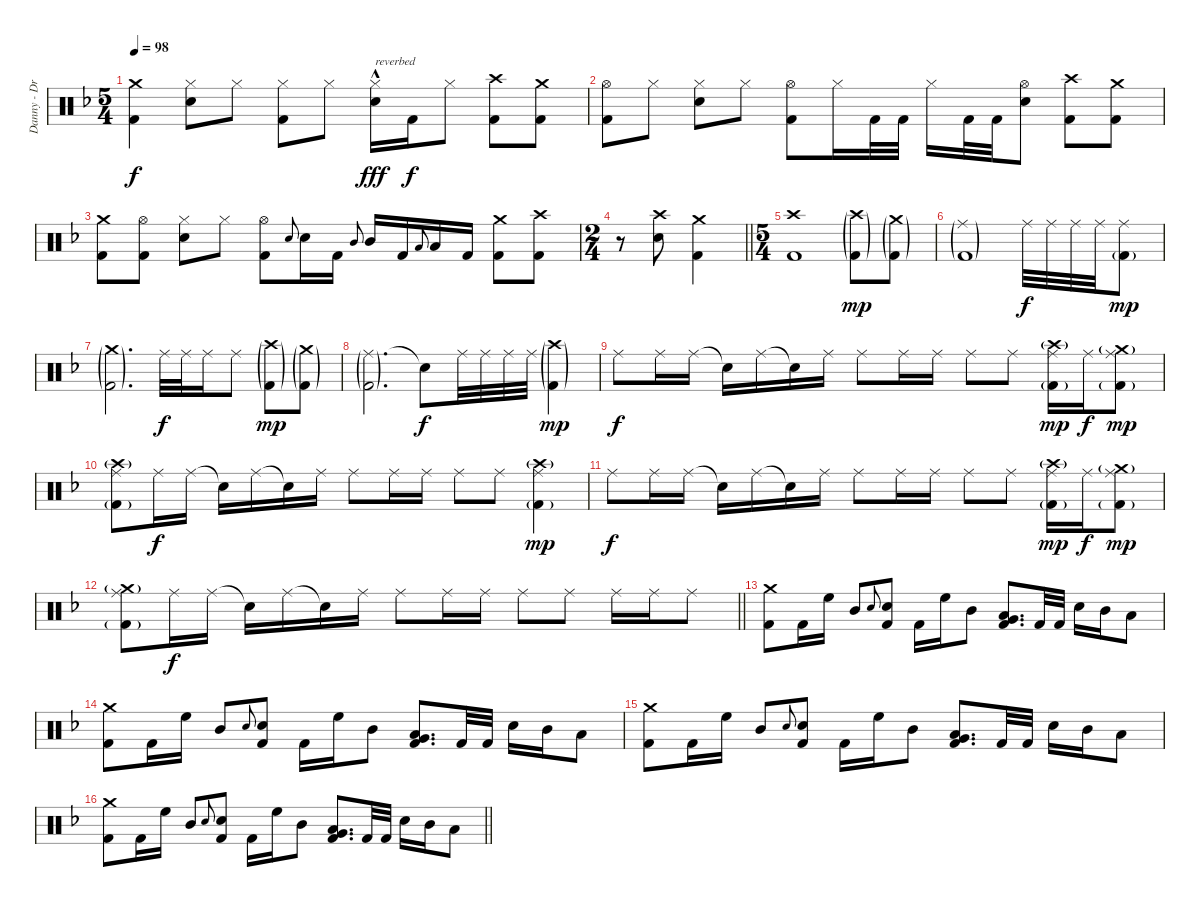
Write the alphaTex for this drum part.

\track ("Danny - Drums" "Danny - Dr") {instrument percussion}
\staff {score}
\articulation defaults
\ts (5 4)
\tempo 98
\clef neutral
\ks dminor
("Crash medium (hit)" "Kick (hit) 2").4{dy f} ("Hi-Hat (closed)" "Electric Snare (hit)").8 "Hi-Hat (closed)".8 ("Hi-Hat (closed)" "Kick (hit) 2").8 "Hi-Hat (closed)".8 ("Hi-Hat (closed)" "Snare (hit) 2"{hac}).16{txt "reverbed" dy fff} "Kick (hit) 2".16{dy f} "Hi-Hat (closed)".8 ("Crash high (hit)" "Kick (hit) 2").8 ("Crash medium (hit)" "Kick (hit) 2").8 |
("Hi-Hat (open)" "Kick (hit) 2").8 "Hi-Hat (closed)".8 ("Hi-Hat (closed)" "Electric Snare (hit)").8 "Hi-Hat (closed)".8 ("Hi-Hat (open)" "Kick (hit) 2").8 "Hi-Hat (closed)".16 "Kick (hit) 2".32 "Kick (hit) 2".32 "Hi-Hat (closed)".16 "Kick (hit) 2".32 "Kick (hit) 2".32 ("Hi-Hat (open)" "Electric Snare (hit)").8 ("Crash high (hit)" "Kick (hit) 2").8 ("Crash medium (hit)" "Kick (hit) 2").8 |
("Crash medium (hit)" "Kick (hit) 2").8 ("Hi-Hat (open)" "Kick (hit) 2").8 ("Hi-Hat (closed)" "Electric Snare (hit)").8 "Hi-Hat (closed)".8 ("Hi-Hat (open)" "Kick (hit) 2").8 "Electric Snare (hit)".8{gr onbeat} "Electric Snare (hit)".16 "Kick (hit) 2".16 "Mid Tom (hit)".8{gr onbeat} "Mid Tom (hit)".16 "Kick (hit) 2".16 "Low Tom (hit)".8{gr onbeat} "Low Tom (hit)".16 "Kick (hit) 2".16 ("Crash medium (hit)" "Kick (hit) 2").8 ("Crash high (hit)" "Kick (hit) 2").8 |
\ts (2 4)
\barLineRight lightlight
r.8 ("Crash high (hit)" "Electric Snare (hit)").8 ("Crash medium (hit)" "Kick (hit) 2").4 |
\ts (5 4)
("Crash high (hit)" "Kick (hit) 2").1{volume 13} ("Crash high (hit)"{g} "Kick (hit) 2"{g}).8{dy mp} ("Crash medium (hit)"{g} "Kick (hit) 2"{g}).8 |
("Ride (middle)"{g} "Kick (hit) 2"{g}).1 "Ride (middle)".32{dy f} "Ride (middle)".32 "Ride (middle)".32 "Ride (middle)".32 ("Ride (middle)" "Kick (hit) 2"{g}).8{dy mp} |
("Crash medium (hit)"{g} "Kick (hit) 2"{g}).2{d} "Ride (middle)".32{dy f} "Ride (middle)".32 "Ride (middle)".16 "Ride (middle)".8 ("Crash high (hit)"{g} "Kick (hit) 2"{g}).8{dy mp} ("Crash medium (hit)"{g} "Kick (hit) 2"{g}).8 |
("Ride (middle)"{g} "Kick (hit) 2"{g}).2{d} "Snare (hit)"{t}.8{dy f} "Ride (middle)".32 "Ride (middle)".32 "Ride (middle)".32 "Ride (middle)".32 ("Crash high (hit)"{g} "Kick (hit) 2"{g}).4{dy mp} |
"Ride (middle)".8{dy f} "Ride (middle)".16 "Ride (middle)".16 "Snare (hit)"{t}.16 "Ride (middle)".16 "Snare (hit)"{t}.16 "Ride (middle)".16 "Ride (middle)".8 "Ride (middle)".16 "Ride (middle)".16 "Ride (middle)".8 "Ride (middle)".8 ("Crash high (hit)"{g} "Ride (middle)" "Kick (hit) 2"{g}).16{dy mp} "Ride (middle)".16{dy f} ("Crash medium (hit)"{g} "Ride (middle)" "Kick (hit) 2"{g}).8{dy mp} |
("Crash high (hit)"{g} "Ride (middle)" "Kick (hit) 2"{g}).8 "Ride (middle)".16{dy f} "Ride (middle)".16 "Snare (hit)"{t}.16 "Ride (middle)".16 "Snare (hit)"{t}.16 "Ride (middle)".16 "Ride (middle)".8 "Ride (middle)".16 "Ride (middle)".16 "Ride (middle)".8 "Ride (middle)".8 ("Crash high (hit)"{g} "Ride (middle)" "Kick (hit) 2"{g}).4{dy mp} |
"Ride (middle)".8{dy f} "Ride (middle)".16 "Ride (middle)".16 "Snare (hit)"{t}.16 "Ride (middle)".16 "Snare (hit)"{t}.16 "Ride (middle)".16 "Ride (middle)".8 "Ride (middle)".16 "Ride (middle)".16 "Ride (middle)".8 "Ride (middle)".8 ("Crash high (hit)"{g} "Ride (middle)" "Kick (hit) 2"{g}).16{dy mp} "Ride (middle)".16{dy f} ("Crash medium (hit)"{g} "Ride (middle)" "Kick (hit) 2"{g}).8{dy mp} |
\barLineRight lightlight
("Crash medium (hit)"{g} "Ride (middle)" "Kick (hit) 2"{g}).8 "Ride (middle)".16{dy f} "Ride (middle)".16 "Snare (hit)"{t}.16 "Ride (middle)".16 "Snare (hit)"{t}.16 "Ride (middle)".16 "Ride (middle)".8 "Ride (middle)".16 "Ride (middle)".16 "Ride (middle)".8 "Ride (middle)".8 "Ride (middle)".16 "Ride (middle)".16 "Ride (middle)".8 |
("Crash medium (hit)" "Kick (hit) 2").8 "Kick (hit) 2".16 "High Floor Tom (hit)".16 "Mid Tom (hit)".8 "Electric Snare (hit)".8{gr onbeat} ("Electric Snare (hit)" "Kick (hit) 2").8 "Kick (hit) 2".16 "High Floor Tom (hit)".16 "Mid Tom (hit)".8 ("Low Tom (hit)" "Very Low Tom (hit)" "Kick (hit) 2").8{d} "Kick (hit) 2".32 "Kick (hit) 2".32 "Electric Snare (hit)".16 "Mid Tom (hit)".16 "Low Tom (hit)".8 |
("Crash medium (hit)" "Kick (hit) 2").8 "Kick (hit) 2".16 "High Floor Tom (hit)".16 "Mid Tom (hit)".8 "Electric Snare (hit)".8{gr onbeat} ("Electric Snare (hit)" "Kick (hit) 2").8 "Kick (hit) 2".16 "High Floor Tom (hit)".16 "Mid Tom (hit)".8 ("Low Tom (hit)" "Very Low Tom (hit)" "Kick (hit) 2").8{d} "Kick (hit) 2".32 "Kick (hit) 2".32 "Electric Snare (hit)".16 "Mid Tom (hit)".16 "Low Tom (hit)".8 |
("Crash medium (hit)" "Kick (hit) 2").8 "Kick (hit) 2".16 "High Floor Tom (hit)".16 "Mid Tom (hit)".8 "Electric Snare (hit)".8{gr onbeat} ("Electric Snare (hit)" "Kick (hit) 2").8 "Kick (hit) 2".16 "High Floor Tom (hit)".16 "Mid Tom (hit)".8 ("Low Tom (hit)" "Very Low Tom (hit)" "Kick (hit) 2").8{d} "Kick (hit) 2".32 "Kick (hit) 2".32 "Electric Snare (hit)".16 "Mid Tom (hit)".16 "Low Tom (hit)".8 |
\barLineRight lightlight
("Crash medium (hit)" "Kick (hit) 2").8 "Kick (hit) 2".16 "High Floor Tom (hit)".16 "Mid Tom (hit)".8 "Electric Snare (hit)".8{gr onbeat} ("Electric Snare (hit)" "Kick (hit) 2").8 "Kick (hit) 2".16 "High Floor Tom (hit)".16 "Mid Tom (hit)".8 ("Low Tom (hit)" "Very Low Tom (hit)" "Kick (hit) 2").8{d} "Kick (hit) 2".32 "Kick (hit) 2".32 "Electric Snare (hit)".16 "Mid Tom (hit)".16 "Low Tom (hit)".8
